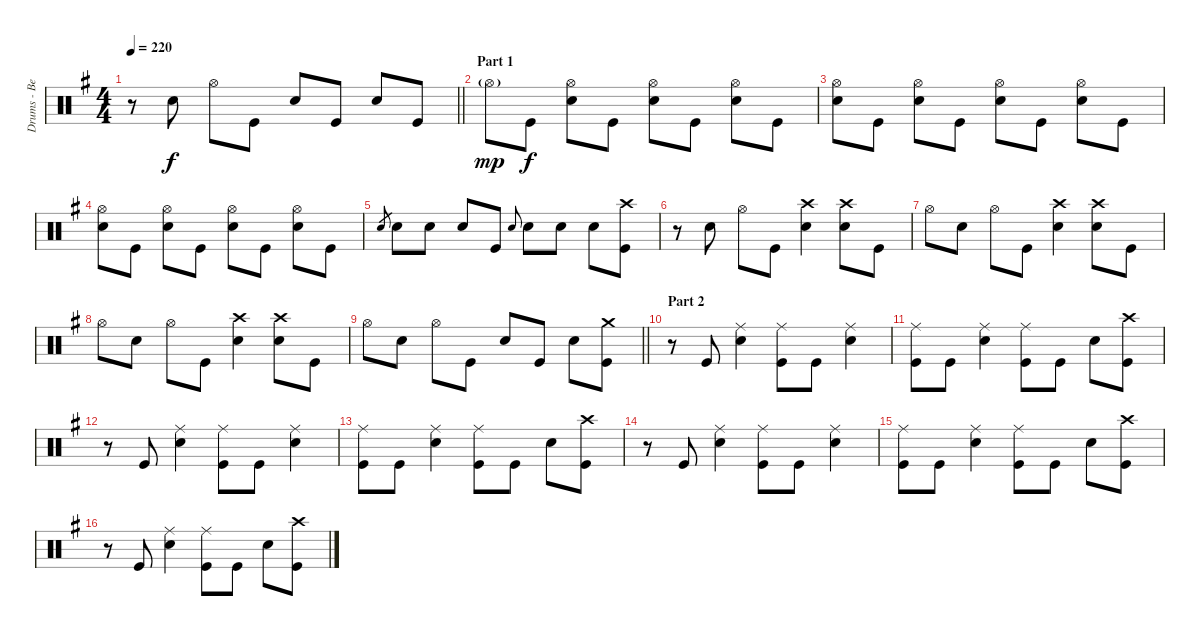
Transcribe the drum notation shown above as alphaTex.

\track ("Drums - Ben Johnston" "Drums - Be") {instrument percussion}
\staff {score}
\articulation defaults
\ts (4 4)
\tempo 220
\clef neutral
\barLineRight lightlight
\ks eminor
r.8{dy f} "Snare (hit) 2".8 "Hi-Hat (open)".8 "Kick (hit)".8 "Snare (hit) 2".8 "Kick (hit)".8 "Snare (hit) 2".8 "Kick (hit)".8 |
\section ("" "Part 1")
"Hi-Hat (open)"{g}.8{dy mp} "Kick (hit)".8{dy f} ("Hi-Hat (open)" "Snare (hit) 2").8 "Kick (hit)".8 ("Hi-Hat (open)" "Snare (hit) 2").8 "Kick (hit)".8 ("Hi-Hat (open)" "Snare (hit) 2").8 "Kick (hit)".8 |
("Hi-Hat (open)" "Snare (hit) 2").8 "Kick (hit)".8 ("Hi-Hat (open)" "Snare (hit) 2").8 "Kick (hit)".8 ("Hi-Hat (open)" "Snare (hit) 2").8 "Kick (hit)".8 ("Hi-Hat (open)" "Snare (hit) 2").8 "Kick (hit)".8 |
("Hi-Hat (open)" "Snare (hit) 2").8 "Kick (hit)".8 ("Hi-Hat (open)" "Snare (hit) 2").8 "Kick (hit)".8 ("Hi-Hat (open)" "Snare (hit) 2").8 "Kick (hit)".8 ("Hi-Hat (open)" "Snare (hit) 2").8 "Kick (hit)".8 |
"Snare (hit) 2".8{gr} "Snare (hit) 2".8 "Snare (hit) 2".8 "Snare (hit) 2".8 "Kick (hit)".8 "Snare (hit) 2".8{gr onbeat} "Snare (hit) 2".8 "Snare (hit) 2".8 "Snare (hit) 2".8 ("Crash high (hit)" "Kick (hit)").8 |
r.8 "Snare (hit) 2".8 "Hi-Hat (open)".8 "Kick (hit)".8 ("Crash high (hit)" "Snare (hit) 2").4 ("Crash high (hit)" "Snare (hit) 2").8 "Kick (hit)".8 |
"Hi-Hat (open)".8 "Snare (hit) 2".8 "Hi-Hat (open)".8 "Kick (hit)".8 ("Crash high (hit)" "Snare (hit) 2").4 ("Crash high (hit)" "Snare (hit) 2").8 "Kick (hit)".8 |
"Hi-Hat (open)".8 "Snare (hit) 2".8 "Hi-Hat (open)".8 "Kick (hit)".8 ("Crash high (hit)" "Snare (hit) 2").4 ("Crash high (hit)" "Snare (hit) 2").8 "Kick (hit)".8 |
\barLineRight lightlight "Hi-Hat (open)".8 "Snare (hit) 2".8 "Hi-Hat (open)".8 "Kick (hit)".8 "Snare (hit) 2".8 "Kick (hit)".8 "Snare (hit) 2".8
("Crash medium (hit)" "Kick (hit)").8 |
\section ("" "Part 2")
r.8 "Kick (hit)".8 ("Ride (middle)" "Snare (hit) 2").4 ("Ride (middle)" "Kick (hit)").8 "Kick (hit)".8 ("Ride (middle)" "Snare (hit) 2").4 |
("Ride (middle)" "Kick (hit)").8 "Kick (hit)".8 ("Ride (middle)" "Snare (hit) 2").4 ("Ride (middle)" "Kick (hit)").8 "Kick (hit)".8 "Snare (hit) 2".8 ("Crash high (hit)" "Kick (hit)").8 |
r.8 "Kick (hit)".8 ("Ride (middle)" "Snare (hit) 2").4 ("Ride (middle)" "Kick (hit)").8 "Kick (hit)".8 ("Ride (middle)" "Snare (hit) 2").4 |
("Ride (middle)" "Kick (hit)").8 "Kick (hit)".8 ("Ride (middle)" "Snare (hit) 2").4 ("Ride (middle)" "Kick (hit)").8 "Kick (hit)".8 "Snare (hit) 2".8 ("Crash high (hit)" "Kick (hit)").8 |
r.8 "Kick (hit)".8 ("Ride (middle)" "Snare (hit) 2").4 ("Ride (middle)" "Kick (hit)").8 "Kick (hit)".8 ("Ride (middle)" "Snare (hit) 2").4 |
("Ride (middle)" "Kick (hit)").8 "Kick (hit)".8 ("Ride (middle)" "Snare (hit) 2").4 ("Ride (middle)" "Kick (hit)").8 "Kick (hit)".8 "Snare (hit) 2".8 ("Crash high (hit)" "Kick (hit)").8 |
r.8 "Kick (hit)".8 ("Ride (middle)" "Snare (hit) 2").4 ("Ride (middle)" "Kick (hit)").8 "Kick (hit)".8 "Snare (hit) 2".8 ("Crash high (hit)" "Kick (hit)").8
